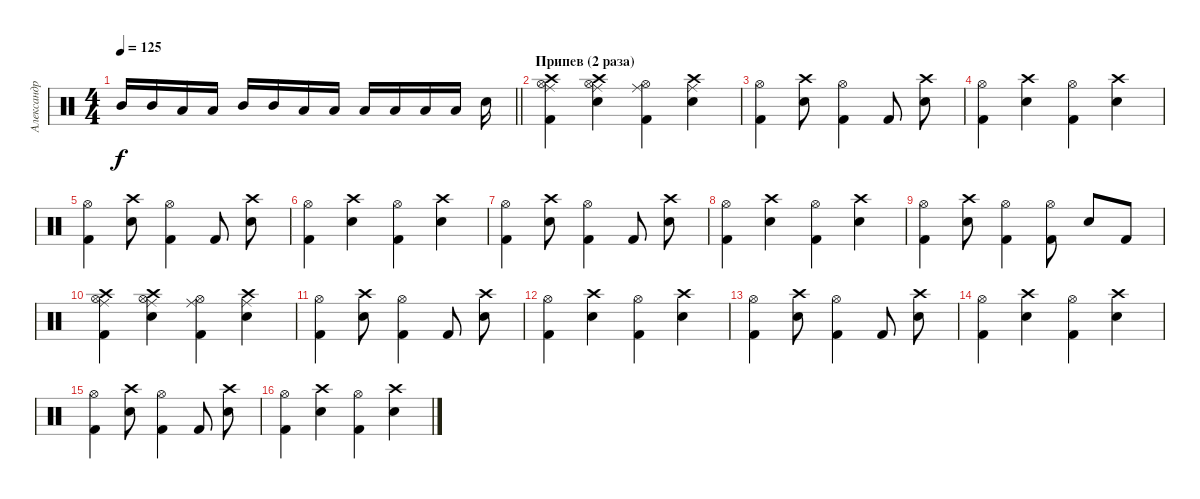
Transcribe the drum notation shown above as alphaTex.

\track ("Александр Манякин" "Александр ") {instrument percussion}
\staff {score}
\articulation defaults
\ts (4 4)
\tempo 125
\clef neutral
\barLineRight lightlight
\ks c "Mid Tom (hit)".16{dy f} "Mid Tom (hit)".16 "Low Tom (hit)".16 "Low Tom (hit)".16 "Mid Tom (hit)".16 "Mid Tom (hit)".16 "Low Floor Tom (hit)".16 "Low Floor Tom (hit)".16 "Low Tom (hit)".16 "Low Tom (hit)".16 "Low Floor Tom (hit)".16 "Low Floor Tom (hit)".16 "Snare (hit) 2".16
|
\section ("" "Припев (2 раза)")
("Crash high (hit)" "Kick (hit) 2" "Hi-Hat (open)" "Ride (middle)").4 ("Hi-Hat (open)" "Snare (hit) 2" "Crash high (hit)" "Ride (middle)").4 ("Hi-Hat (open)" "Kick (hit) 2" "Ride (middle)").4 ("Ride (middle)" "Snare (hit) 2" "Crash high (hit)").4 |
("Kick (hit) 2" "Hi-Hat (open)").4 ("Snare (hit) 2" "Crash high (hit)").8 ("Kick (hit) 2" "Hi-Hat (open)").4 "Kick (hit) 2".8 ("Snare (hit) 2" "Crash high (hit)").8 |
("Kick (hit) 2" "Hi-Hat (open)").4 ("Snare (hit) 2" "Crash high (hit)").4 ("Kick (hit) 2" "Hi-Hat (open)").4 ("Snare (hit) 2" "Crash high (hit)").4 |
("Kick (hit) 2" "Hi-Hat (open)").4 ("Snare (hit) 2" "Crash high (hit)").8 ("Kick (hit) 2" "Hi-Hat (open)").4 "Kick (hit) 2".8 ("Snare (hit) 2" "Crash high (hit)").8 |
("Kick (hit) 2" "Hi-Hat (open)").4 ("Snare (hit) 2" "Crash high (hit)").4 ("Kick (hit) 2" "Hi-Hat (open)").4 ("Snare (hit) 2" "Crash high (hit)").4 |
("Kick (hit) 2" "Hi-Hat (open)").4 ("Snare (hit) 2" "Crash high (hit)").8 ("Kick (hit) 2" "Hi-Hat (open)").4 "Kick (hit) 2".8 ("Snare (hit) 2" "Crash high (hit)").8 |
("Kick (hit) 2" "Hi-Hat (open)").4 ("Snare (hit) 2" "Crash high (hit)").4 ("Kick (hit) 2" "Hi-Hat (open)").4 ("Snare (hit) 2" "Crash high (hit)").4 |
("Kick (hit) 2" "Hi-Hat (open)").4 ("Snare (hit) 2" "Crash high (hit)").8 ("Kick (hit) 2" "Hi-Hat (open)").4 ("Kick (hit) 2" "Hi-Hat (open)").8 "Snare (hit) 2".8 "Kick (hit) 2".8 |
("Crash high (hit)" "Kick (hit) 2" "Hi-Hat (open)" "Ride (middle)").4 ("Hi-Hat (open)" "Snare (hit) 2" "Crash high (hit)" "Ride (middle)").4 ("Hi-Hat (open)" "Kick (hit) 2" "Ride (middle)").4 ("Ride (middle)" "Snare (hit) 2" "Crash high (hit)").4 |
("Kick (hit) 2" "Hi-Hat (open)").4 ("Snare (hit) 2" "Crash high (hit)").8 ("Kick (hit) 2" "Hi-Hat (open)").4 "Kick (hit) 2".8 ("Snare (hit) 2" "Crash high (hit)").8 |
("Kick (hit) 2" "Hi-Hat (open)").4 ("Snare (hit) 2" "Crash high (hit)").4 ("Kick (hit) 2" "Hi-Hat (open)").4 ("Snare (hit) 2" "Crash high (hit)").4 |
("Kick (hit) 2" "Hi-Hat (open)").4 ("Snare (hit) 2" "Crash high (hit)").8 ("Kick (hit) 2" "Hi-Hat (open)").4 "Kick (hit) 2".8 ("Snare (hit) 2" "Crash high (hit)").8 |
("Kick (hit) 2" "Hi-Hat (open)").4 ("Snare (hit) 2" "Crash high (hit)").4 ("Kick (hit) 2" "Hi-Hat (open)").4 ("Snare (hit) 2" "Crash high (hit)").4 |
("Kick (hit) 2" "Hi-Hat (open)").4 ("Snare (hit) 2" "Crash high (hit)").8 ("Kick (hit) 2" "Hi-Hat (open)").4 "Kick (hit) 2".8 ("Snare (hit) 2" "Crash high (hit)").8 |
("Kick (hit) 2" "Hi-Hat (open)").4 ("Snare (hit) 2" "Crash high (hit)").4 ("Kick (hit) 2" "Hi-Hat (open)").4 ("Snare (hit) 2" "Crash high (hit)").4
